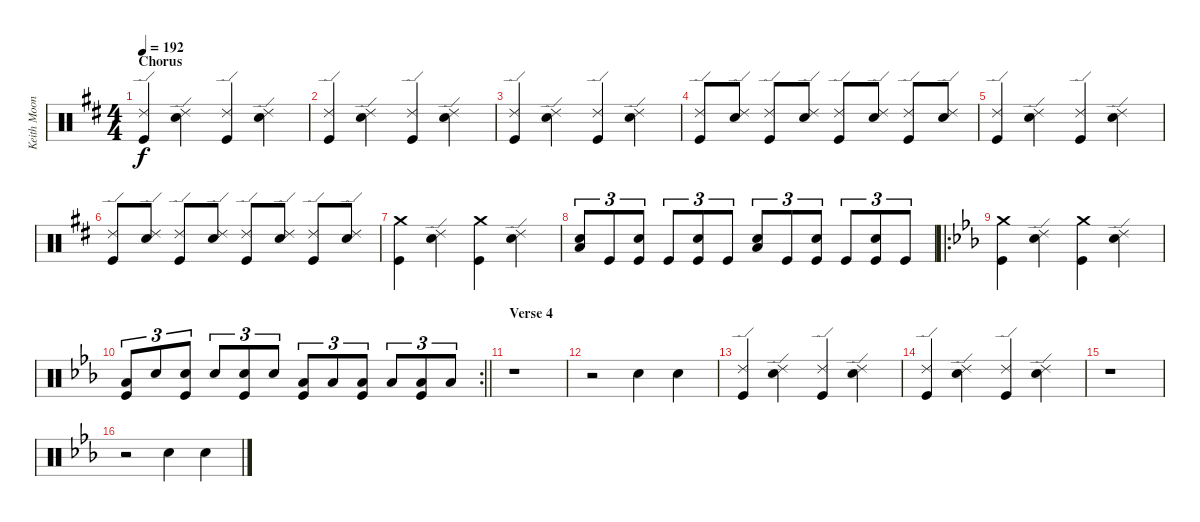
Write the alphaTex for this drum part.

\track ("Keith Moon - Drums" "Keith Moon") {instrument percussion}
\staff {score}
\articulation defaults
\ts (4 4)
\section ("" "Chorus")
\tempo 192
\clef neutral
\ks d
("Ride (edge) 2" "Kick (hit)").4{dy f} ("Ride (edge) 2" "Electric Snare (hit)").4 ("Ride (edge) 2" "Kick (hit)").4 ("Ride (edge) 2" "Electric Snare (hit)").4 |
("Ride (edge) 2" "Kick (hit)").4 ("Ride (edge) 2" "Electric Snare (hit)").4 ("Ride (edge) 2" "Kick (hit)").4 ("Ride (edge) 2" "Electric Snare (hit)").4 |
("Ride (edge) 2" "Kick (hit)").4 ("Ride (edge) 2" "Electric Snare (hit)").4 ("Ride (edge) 2" "Kick (hit)").4 ("Ride (edge) 2" "Electric Snare (hit)").4 |
("Ride (edge) 2" "Kick (hit)").8 ("Ride (edge) 2" "Electric Snare (hit)").8 ("Ride (edge) 2" "Kick (hit)").8 ("Ride (edge) 2" "Electric Snare (hit)").8 ("Ride (edge) 2" "Kick (hit)").8 ("Ride (edge) 2" "Electric Snare (hit)").8 ("Ride (edge) 2" "Kick (hit)").8 ("Ride (edge) 2" "Electric Snare (hit)").8 |
("Ride (edge) 2" "Kick (hit)").4 ("Ride (edge) 2" "Electric Snare (hit)").4 ("Ride (edge) 2" "Kick (hit)").4 ("Ride (edge) 2" "Electric Snare (hit)").4 |
("Ride (edge) 2" "Kick (hit)").8 ("Ride (edge) 2" "Electric Snare (hit)").8 ("Ride (edge) 2" "Kick (hit)").8 ("Ride (edge) 2" "Electric Snare (hit)").8 ("Ride (edge) 2" "Kick (hit)").8 ("Ride (edge) 2" "Electric Snare (hit)").8 ("Ride (edge) 2" "Kick (hit)").8 ("Ride (edge) 2" "Electric Snare (hit)").8 |
("Crash medium (hit)" "Kick (hit)").4 ("Ride (edge) 2" "Electric Snare (hit)").4 ("Crash medium (hit)" "Kick (hit)").4 ("Ride (edge) 2" "Electric Snare (hit)").4 |
("Low Floor Tom (hit)" "Electric Snare (hit)").8{tu (3 2)} "Kick (hit)".8{tu (3 2)} ("Kick (hit)" "Electric Snare (hit)").8{tu (3 2)} "Kick (hit)".8{tu (3 2)} ("Kick (hit)" "Electric Snare (hit)").8{tu (3 2)} "Kick (hit)".8{tu (3 2)} ("Low Floor Tom (hit)" "Electric Snare (hit)").8{tu (3 2)} "Kick (hit)".8{tu (3 2)} ("Kick (hit)" "Electric Snare (hit)").8{tu (3 2)} "Kick (hit)".8{tu (3 2)} ("Kick (hit)" "Electric Snare (hit)").8{tu (3 2)} "Kick (hit)".8{tu (3 2)} |
\ro
\ks eb
("Crash medium (hit)" "Kick (hit)").4 ("Ride (edge) 2" "Electric Snare (hit)").4 ("Crash medium (hit)" "Kick (hit)").4 ("Ride (edge) 2" "Electric Snare (hit)").4 |
\rc 2
\barLineRight lightlight
("Low Floor Tom (hit)" "Kick (hit)").8{tu (3 2)} "Electric Snare (hit)".8{tu (3 2)} ("Electric Snare (hit)" "Kick (hit)").8{tu (3 2)} "Electric Snare (hit)".8{tu (3 2)} ("Electric Snare (hit)" "Kick (hit)").8{tu (3 2)} "Electric Snare (hit)".8{tu (3 2)} ("Low Floor Tom (hit)" "Kick (hit)").8{tu (3 2)} "Low Floor Tom (hit)".8{tu (3 2)} ("Low Floor Tom (hit)" "Kick (hit)").8{tu (3 2)} "Low Floor Tom (hit)".8{tu (3 2)} ("Low Floor Tom (hit)" "Kick (hit)").8{tu (3 2)} "Low Floor Tom (hit)".8{tu (3 2)} |
\section ("" "Verse 4")
r.1 |
r.2 "Electric Snare (hit)".4 "Electric Snare (hit)".4 |
("Ride (edge) 2" "Kick (hit)").4 ("Ride (edge) 2" "Electric Snare (hit)").4 ("Ride (edge) 2" "Kick (hit)").4 ("Ride (edge) 2" "Electric Snare (hit)").4 |
("Ride (edge) 2" "Kick (hit)").4 ("Ride (edge) 2" "Electric Snare (hit)").4 ("Ride (edge) 2" "Kick (hit)").4 ("Ride (edge) 2" "Electric Snare (hit)").4 |
r.1 |
r.2 "Electric Snare (hit)".4 "Electric Snare (hit)".4
